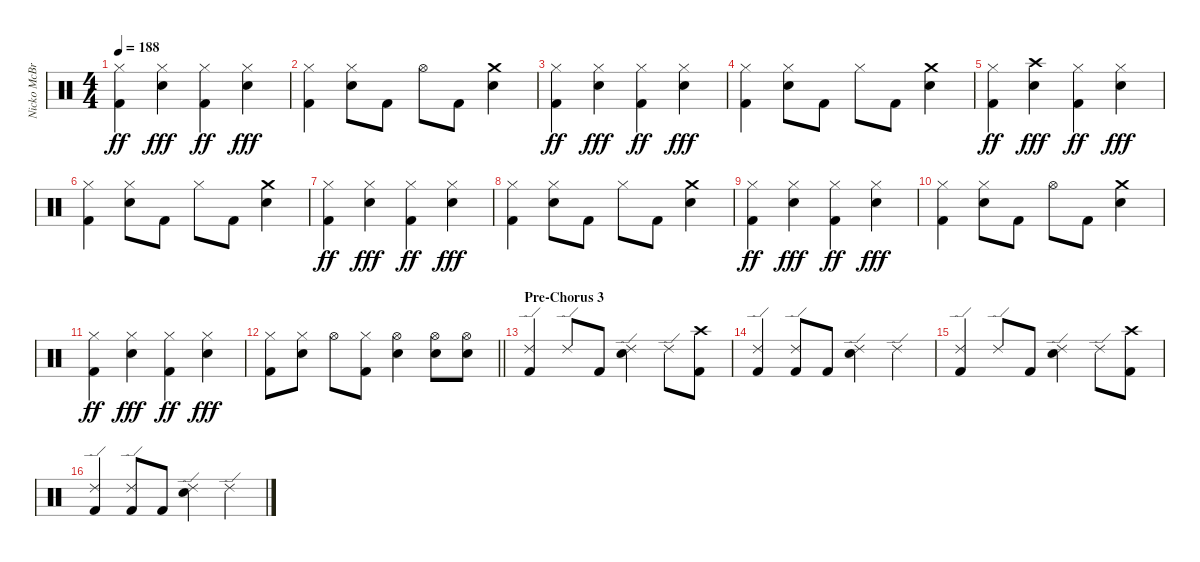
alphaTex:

\track ("Nicko McBrain" "Nicko McBr") {instrument percussion}
\staff {score}
\articulation defaults
\ts (4 4)
\tempo 188
\clef neutral
\ks c
("Hi-Hat (closed)" "Kick (hit) 2").4{dy ff} ("Hi-Hat (closed)" "Electric Snare (hit)").4{dy fff} ("Hi-Hat (closed)" "Kick (hit) 2").4{dy ff} ("Hi-Hat (closed)" "Electric Snare (hit)").4{dy fff} |
("Hi-Hat (closed)" "Kick (hit) 2").4 ("Hi-Hat (closed)" "Electric Snare (hit)").8 "Kick (hit) 2".8 "Hi-Hat (open)".8 "Kick (hit) 2".8 ("Crash medium (hit)" "Electric Snare (hit)").4 |
("Hi-Hat (closed)" "Kick (hit) 2").4{dy ff} ("Hi-Hat (closed)" "Electric Snare (hit)").4{dy fff} ("Hi-Hat (closed)" "Kick (hit) 2").4{dy ff} ("Hi-Hat (closed)" "Electric Snare (hit)").4{dy fff} |
("Hi-Hat (closed)" "Kick (hit) 2").4 ("Hi-Hat (closed)" "Electric Snare (hit)").8 "Kick (hit) 2".8 "Hi-Hat (closed)".8 "Kick (hit) 2".8 ("Crash medium (hit)" "Electric Snare (hit)").4 |
("Hi-Hat (closed)" "Kick (hit) 2").4{dy ff} ("Crash high (hit)" "Electric Snare (hit)").4{dy fff} ("Hi-Hat (closed)" "Kick (hit) 2").4{dy ff} ("Hi-Hat (closed)" "Electric Snare (hit)").4{dy fff} |
("Hi-Hat (closed)" "Kick (hit) 2").4 ("Hi-Hat (closed)" "Electric Snare (hit)").8 "Kick (hit) 2".8 "Hi-Hat (closed)".8 "Kick (hit) 2".8 ("Crash medium (hit)" "Electric Snare (hit)").4 |
("Hi-Hat (closed)" "Kick (hit) 2").4{dy ff} ("Hi-Hat (closed)" "Electric Snare (hit)").4{dy fff} ("Hi-Hat (closed)" "Kick (hit) 2").4{dy ff} ("Hi-Hat (closed)" "Electric Snare (hit)").4{dy fff} |
("Hi-Hat (closed)" "Kick (hit) 2").4 ("Hi-Hat (closed)" "Electric Snare (hit)").8 "Kick (hit) 2".8 "Hi-Hat (closed)".8 "Kick (hit) 2".8 ("Crash medium (hit)" "Electric Snare (hit)").4 |
("Hi-Hat (closed)" "Kick (hit) 2").4{dy ff} ("Hi-Hat (closed)" "Electric Snare (hit)").4{dy fff} ("Hi-Hat (closed)" "Kick (hit) 2").4{dy ff} ("Hi-Hat (closed)" "Electric Snare (hit)").4{dy fff} |
("Hi-Hat (closed)" "Kick (hit) 2").4 ("Hi-Hat (closed)" "Electric Snare (hit)").8 "Kick (hit) 2".8 "Hi-Hat (open)".8 "Kick (hit) 2".8 ("Crash medium (hit)" "Electric Snare (hit)").4 |
("Hi-Hat (closed)" "Kick (hit) 2").4{dy ff} ("Hi-Hat (closed)" "Electric Snare (hit)").4{dy fff} ("Hi-Hat (closed)" "Kick (hit) 2").4{dy ff} ("Hi-Hat (closed)" "Electric Snare (hit)").4{dy fff} |
\barLineRight lightlight
("Hi-Hat (closed)" "Kick (hit) 2").8 ("Hi-Hat (closed)" "Electric Snare (hit)").8 "Hi-Hat (open)".8 ("Hi-Hat (closed)" "Kick (hit) 2").8 ("Hi-Hat (open)" "Electric Snare (hit)").4 ("Hi-Hat (open)" "Electric Snare (hit)").8 ("Hi-Hat (open)" "Electric Snare (hit)").8 |
\section ("" "Pre-Chorus 3")
("Ride (edge) 2" "Kick (hit) 2").4 "Ride (edge) 2".8 "Kick (hit) 2".8 ("Ride (edge) 2" "Electric Snare (hit)").4 "Ride (edge) 2".8 ("Crash high (hit)" "Kick (hit) 2").8 |
("Ride (edge) 2" "Kick (hit) 2").4 ("Ride (edge) 2" "Kick (hit) 2").8 "Kick (hit) 2".8 ("Ride (edge) 2" "Electric Snare (hit)").4 "Ride (edge) 2".4 |
("Ride (edge) 2" "Kick (hit) 2").4 "Ride (edge) 2".8 "Kick (hit) 2".8 ("Ride (edge) 2" "Electric Snare (hit)").4 "Ride (edge) 2".8 ("Crash high (hit)" "Kick (hit) 2").8 |
("Ride (edge) 2" "Kick (hit) 2").4 ("Ride (edge) 2" "Kick (hit) 2").8 "Kick (hit) 2".8 ("Ride (edge) 2" "Electric Snare (hit)").4 "Ride (edge) 2".4
